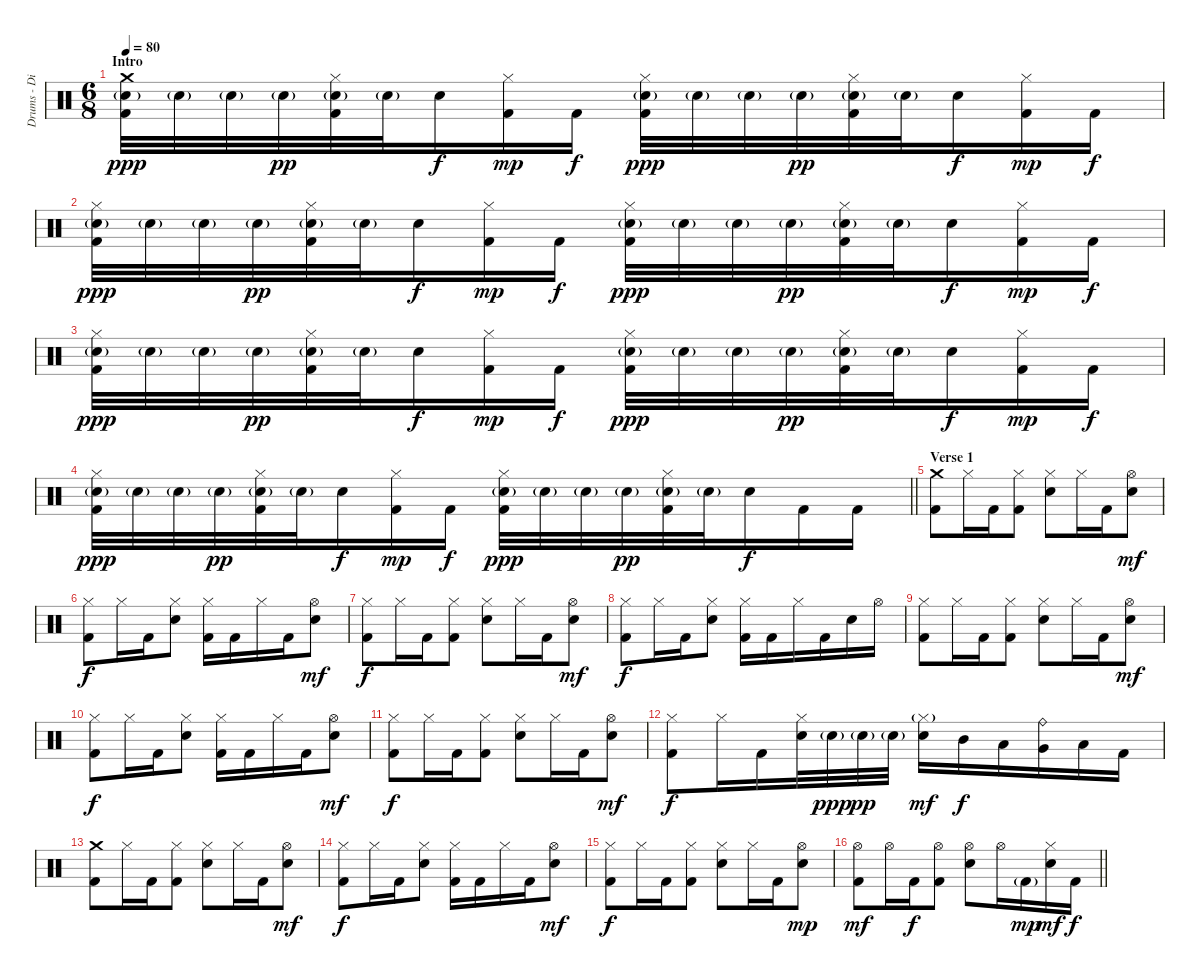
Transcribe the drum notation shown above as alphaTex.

\track ("Drums - Dino Campanella" "Drums - Di") {instrument percussion}
\staff {score}
\articulation defaults
\ts (6 8)
\section ("" "Intro")
\tempo 80
\clef neutral
\ks c
("Crash medium (hit)" "Snare (hit) 2"{g} "Kick (hit) 2").32{dy ppp} "Snare (hit) 2"{g}.32 "Snare (hit) 2"{g}.32 "Snare (hit) 2"{g}.32{dy pp} ("Hi-Hat (closed)" "Snare (hit) 2"{g} "Kick (hit) 2").32 "Snare (hit) 2"{g}.32 "Electric Snare (hit)".16{dy f} ("Hi-Hat (closed)" "Kick (hit) 2").16{dy mp} "Kick (hit) 2".16{dy f} ("Hi-Hat (closed)" "Snare (hit) 2"{g} "Kick (hit) 2").32{dy ppp} "Snare (hit) 2"{g}.32 "Snare (hit) 2"{g}.32 "Snare (hit) 2"{g}.32{dy pp} ("Hi-Hat (closed)" "Snare (hit) 2"{g} "Kick (hit) 2").32 "Snare (hit) 2"{g}.32 "Electric Snare (hit)".16{dy f} ("Hi-Hat (closed)" "Kick (hit) 2").16{dy mp} "Kick (hit) 2".16{dy f} |
("Hi-Hat (closed)" "Snare (hit) 2"{g} "Kick (hit) 2").32{dy ppp} "Snare (hit) 2"{g}.32 "Snare (hit) 2"{g}.32 "Snare (hit) 2"{g}.32{dy pp} ("Hi-Hat (closed)" "Snare (hit) 2"{g} "Kick (hit) 2").32 "Snare (hit) 2"{g}.32 "Electric Snare (hit)".16{dy f} ("Hi-Hat (closed)" "Kick (hit) 2").16{dy mp} "Kick (hit) 2".16{dy f} ("Hi-Hat (closed)" "Snare (hit) 2"{g} "Kick (hit) 2").32{dy ppp} "Snare (hit) 2"{g}.32 "Snare (hit) 2"{g}.32 "Snare (hit) 2"{g}.32{dy pp} ("Hi-Hat (closed)" "Snare (hit) 2"{g} "Kick (hit) 2").32 "Snare (hit) 2"{g}.32 "Electric Snare (hit)".16{dy f} ("Hi-Hat (closed)" "Kick (hit) 2").16{dy mp} "Kick (hit) 2".16{dy f} |
("Hi-Hat (closed)" "Snare (hit) 2"{g} "Kick (hit) 2").32{dy ppp} "Snare (hit) 2"{g}.32 "Snare (hit) 2"{g}.32 "Snare (hit) 2"{g}.32{dy pp} ("Hi-Hat (closed)" "Snare (hit) 2"{g} "Kick (hit) 2").32 "Snare (hit) 2"{g}.32 "Electric Snare (hit)".16{dy f} ("Hi-Hat (closed)" "Kick (hit) 2").16{dy mp} "Kick (hit) 2".16{dy f} ("Hi-Hat (closed)" "Snare (hit) 2"{g} "Kick (hit) 2").32{dy ppp} "Snare (hit) 2"{g}.32 "Snare (hit) 2"{g}.32 "Snare (hit) 2"{g}.32{dy pp} ("Hi-Hat (closed)" "Snare (hit) 2"{g} "Kick (hit) 2").32 "Snare (hit) 2"{g}.32 "Electric Snare (hit)".16{dy f} ("Hi-Hat (closed)" "Kick (hit) 2").16{dy mp} "Kick (hit) 2".16{dy f} |
\barLineRight lightlight
("Hi-Hat (closed)" "Snare (hit) 2"{g} "Kick (hit) 2").32{dy ppp} "Snare (hit) 2"{g}.32 "Snare (hit) 2"{g}.32 "Snare (hit) 2"{g}.32{dy pp} ("Hi-Hat (closed)" "Snare (hit) 2"{g} "Kick (hit) 2").32 "Snare (hit) 2"{g}.32 "Electric Snare (hit)".16{dy f} ("Hi-Hat (closed)" "Kick (hit) 2").16{dy mp} "Kick (hit) 2".16{dy f} ("Hi-Hat (closed)" "Snare (hit) 2"{g} "Kick (hit) 2").32{dy ppp} "Snare (hit) 2"{g}.32 "Snare (hit) 2"{g}.32 "Snare (hit) 2"{g}.32{dy pp} ("Hi-Hat (closed)" "Snare (hit) 2"{g} "Kick (hit) 2").32 "Snare (hit) 2"{g}.32 "Electric Snare (hit)".16{dy f} "Kick (hit) 2".16 "Kick (hit) 2".16 |
\section ("" "Verse 1")
("Crash medium (hit)" "Kick (hit) 2").8 "Hi-Hat (closed)".16 "Kick (hit) 2".16 ("Hi-Hat (closed)" "Kick (hit) 2").8 ("Hi-Hat (closed)" "Electric Snare (hit)").8 "Hi-Hat (closed)".16 "Kick (hit) 2".16 ("Hi-Hat (open)" "Electric Snare (hit)").8{dy mf} |
("Hi-Hat (closed)" "Kick (hit) 2").8{dy f} "Hi-Hat (closed)".16 "Kick (hit) 2".16 ("Hi-Hat (closed)" "Electric Snare (hit)").8 ("Hi-Hat (closed)" "Kick (hit) 2").16 "Kick (hit) 2".16 "Hi-Hat (closed)".16 "Kick (hit) 2".16 ("Hi-Hat (open)" "Electric Snare (hit)").8{dy mf} |
("Hi-Hat (closed)" "Kick (hit) 2").8{dy f} "Hi-Hat (closed)".16 "Kick (hit) 2".16 ("Hi-Hat (closed)" "Kick (hit) 2").8 ("Hi-Hat (closed)" "Electric Snare (hit)").8 "Hi-Hat (closed)".16 "Kick (hit) 2".16 ("Hi-Hat (open)" "Electric Snare (hit)").8{dy mf} |
("Hi-Hat (closed)" "Kick (hit) 2").8{dy f} "Hi-Hat (closed)".16 "Kick (hit) 2".16 ("Hi-Hat (closed)" "Electric Snare (hit)").8 ("Hi-Hat (closed)" "Kick (hit) 2").16 "Kick (hit) 2".16 "Hi-Hat (closed)".16 "Kick (hit) 2".16 "Electric Snare (hit)".16 "Hi-Hat (open)".16 |
("Hi-Hat (closed)" "Kick (hit) 2").8 "Hi-Hat (closed)".16 "Kick (hit) 2".16 ("Hi-Hat (closed)" "Kick (hit) 2").8 ("Hi-Hat (closed)" "Electric Snare (hit)").8 "Hi-Hat (closed)".16 "Kick (hit) 2".16 ("Hi-Hat (open)" "Electric Snare (hit)").8{dy mf} |
("Hi-Hat (closed)" "Kick (hit) 2").8{dy f} "Hi-Hat (closed)".16 "Kick (hit) 2".16 ("Hi-Hat (closed)" "Electric Snare (hit)").8 ("Hi-Hat (closed)" "Kick (hit) 2").16 "Kick (hit) 2".16 "Hi-Hat (closed)".16 "Kick (hit) 2".16 ("Hi-Hat (open)" "Electric Snare (hit)").8{dy mf} |
("Hi-Hat (closed)" "Kick (hit) 2").8{dy f} "Hi-Hat (closed)".16 "Kick (hit) 2".16 ("Hi-Hat (closed)" "Kick (hit) 2").8 ("Hi-Hat (closed)" "Electric Snare (hit)").8 "Hi-Hat (closed)".16 "Kick (hit) 2".16 ("Hi-Hat (open)" "Electric Snare (hit)").8{dy mf} |
("Hi-Hat (closed)" "Kick (hit) 2").8{dy f} "Hi-Hat (closed)".16 "Kick (hit) 2".16 ("Hi-Hat (closed)" "Electric Snare (hit)").32 "Snare (hit) 2"{g}.32{dy ppp} "Snare (hit) 2"{g}.32{dy pp} "Snare (hit) 2"{g}.32 ("Hi-Hat (closed)"{g} "Electric Snare (hit)").16{dy mf} "Mid Tom (hit)".16{dy f} "Low Tom (hit)".16 ("Ride (bell)" "Very Low Tom (hit)").16 "Low Floor Tom (hit)".16 "Kick (hit) 2".16 |
("Crash medium (hit)" "Kick (hit) 2").8 "Hi-Hat (closed)".16 "Kick (hit) 2".16 ("Hi-Hat (closed)" "Kick (hit) 2").8 ("Hi-Hat (closed)" "Electric Snare (hit)").8 "Hi-Hat (closed)".16 "Kick (hit) 2".16 ("Hi-Hat (open)" "Electric Snare (hit)").8{dy mf} |
("Hi-Hat (closed)" "Kick (hit) 2").8{dy f} "Hi-Hat (closed)".16 "Kick (hit) 2".16 ("Hi-Hat (closed)" "Electric Snare (hit)").8 ("Hi-Hat (closed)" "Kick (hit) 2").16 "Kick (hit) 2".16 "Hi-Hat (closed)".16 "Kick (hit) 2".16 ("Hi-Hat (open)" "Electric Snare (hit)").8{dy mf} |
("Hi-Hat (closed)" "Kick (hit) 2").8{dy f} "Hi-Hat (closed)".16 "Kick (hit) 2".16 ("Hi-Hat (closed)" "Kick (hit) 2").8 ("Hi-Hat (closed)" "Electric Snare (hit)").8 "Hi-Hat (closed)".16 "Kick (hit) 2".16 ("Hi-Hat (open)" "Electric Snare (hit)").8{dy mp} |
\barLineRight lightlight
("Hi-Hat (open)" "Kick (hit) 2").8{dy mf} "Hi-Hat (open)".16 "Kick (hit) 2".16{dy f} ("Hi-Hat (open)" "Kick (hit) 2").8 ("Hi-Hat (open)" "Electric Snare (hit)").8 "Hi-Hat (open)".16 "Kick (hit) 2"{g}.16{dy mp} ("Hi-Hat (closed)" "Electric Snare (hit)").16{dy mf} "Kick (hit) 2".16{dy f}
